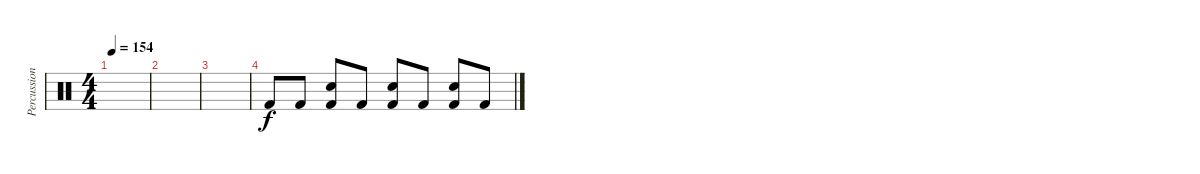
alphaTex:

\track ("Percussion" "Percussion") {instrument percussion}
\staff {score}
\articulation defaults
\ts (4 4)
\tempo 154
\clef neutral
\ks c
|
|
|
"Kick (hit) 2".8 "Kick (hit) 2".8 ("Kick (hit) 2" "Electric Snare (hit)").8 "Kick (hit) 2".8 ("Kick (hit) 2" "Electric Snare (hit)").8 "Kick (hit) 2".8 ("Kick (hit) 2" "Electric Snare (hit)").8 "Kick (hit) 2".8
